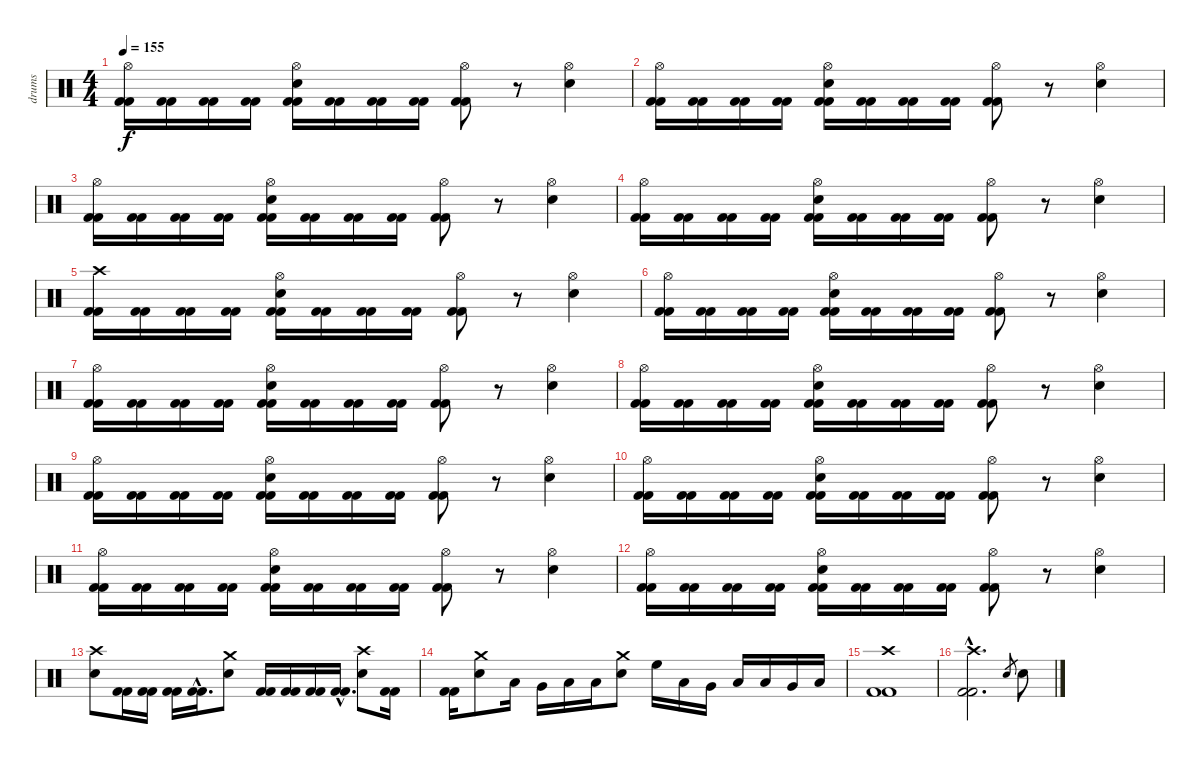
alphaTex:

\track ("drums" "drums") {instrument percussion}
\staff {score}
\articulation defaults
\ts (4 4)
\tempo 155
\clef neutral
\ks c
("Hi-Hat (open)" "Kick (hit) 2" "Kick (hit) 2").16{dy f} ("Kick (hit) 2" "Kick (hit) 2").16 ("Kick (hit) 2" "Kick (hit) 2").16 ("Kick (hit) 2" "Kick (hit) 2").16 ("Hi-Hat (open)" "Electric Snare (hit)" "Kick (hit) 2" "Kick (hit) 2").16 ("Kick (hit) 2" "Kick (hit) 2").16 ("Kick (hit) 2" "Kick (hit) 2").16 ("Kick (hit) 2" "Kick (hit) 2").16 ("Hi-Hat (open)" "Kick (hit) 2" "Kick (hit) 2").8 r.8 ("Hi-Hat (open)" "Electric Snare (hit)").4 |
("Hi-Hat (open)" "Kick (hit) 2" "Kick (hit) 2").16 ("Kick (hit) 2" "Kick (hit) 2").16 ("Kick (hit) 2" "Kick (hit) 2").16 ("Kick (hit) 2" "Kick (hit) 2").16 ("Hi-Hat (open)" "Electric Snare (hit)" "Kick (hit) 2" "Kick (hit) 2").16 ("Kick (hit) 2" "Kick (hit) 2").16 ("Kick (hit) 2" "Kick (hit) 2").16 ("Kick (hit) 2" "Kick (hit) 2").16 ("Hi-Hat (open)" "Kick (hit) 2" "Kick (hit) 2").8 r.8 ("Hi-Hat (open)" "Electric Snare (hit)").4 |
("Hi-Hat (open)" "Kick (hit) 2" "Kick (hit) 2").16 ("Kick (hit) 2" "Kick (hit) 2").16 ("Kick (hit) 2" "Kick (hit) 2").16 ("Kick (hit) 2" "Kick (hit) 2").16 ("Hi-Hat (open)" "Electric Snare (hit)" "Kick (hit) 2" "Kick (hit) 2").16 ("Kick (hit) 2" "Kick (hit) 2").16 ("Kick (hit) 2" "Kick (hit) 2").16 ("Kick (hit) 2" "Kick (hit) 2").16 ("Hi-Hat (open)" "Kick (hit) 2" "Kick (hit) 2").8 r.8 ("Hi-Hat (open)" "Electric Snare (hit)").4 |
("Hi-Hat (open)" "Kick (hit) 2" "Kick (hit) 2").16 ("Kick (hit) 2" "Kick (hit) 2").16 ("Kick (hit) 2" "Kick (hit) 2").16 ("Kick (hit) 2" "Kick (hit) 2").16 ("Hi-Hat (open)" "Electric Snare (hit)" "Kick (hit) 2" "Kick (hit) 2").16 ("Kick (hit) 2" "Kick (hit) 2").16 ("Kick (hit) 2" "Kick (hit) 2").16 ("Kick (hit) 2" "Kick (hit) 2").16 ("Hi-Hat (open)" "Kick (hit) 2" "Kick (hit) 2").8 r.8 ("Hi-Hat (open)" "Electric Snare (hit)").4 |
("Crash high (hit)" "Kick (hit) 2" "Kick (hit) 2").16 ("Kick (hit) 2" "Kick (hit) 2").16 ("Kick (hit) 2" "Kick (hit) 2").16 ("Kick (hit) 2" "Kick (hit) 2").16 ("Hi-Hat (open)" "Electric Snare (hit)" "Kick (hit) 2" "Kick (hit) 2").16 ("Kick (hit) 2" "Kick (hit) 2").16 ("Kick (hit) 2" "Kick (hit) 2").16 ("Kick (hit) 2" "Kick (hit) 2").16 ("Hi-Hat (open)" "Kick (hit) 2" "Kick (hit) 2").8 r.8 ("Hi-Hat (open)" "Electric Snare (hit)").4 |
("Hi-Hat (open)" "Kick (hit) 2" "Kick (hit) 2").16 ("Kick (hit) 2" "Kick (hit) 2").16 ("Kick (hit) 2" "Kick (hit) 2").16 ("Kick (hit) 2" "Kick (hit) 2").16 ("Hi-Hat (open)" "Electric Snare (hit)" "Kick (hit) 2" "Kick (hit) 2").16 ("Kick (hit) 2" "Kick (hit) 2").16 ("Kick (hit) 2" "Kick (hit) 2").16 ("Kick (hit) 2" "Kick (hit) 2").16 ("Hi-Hat (open)" "Kick (hit) 2" "Kick (hit) 2").8 r.8 ("Hi-Hat (open)" "Electric Snare (hit)").4 |
("Hi-Hat (open)" "Kick (hit) 2" "Kick (hit) 2").16 ("Kick (hit) 2" "Kick (hit) 2").16 ("Kick (hit) 2" "Kick (hit) 2").16 ("Kick (hit) 2" "Kick (hit) 2").16 ("Hi-Hat (open)" "Electric Snare (hit)" "Kick (hit) 2" "Kick (hit) 2").16 ("Kick (hit) 2" "Kick (hit) 2").16 ("Kick (hit) 2" "Kick (hit) 2").16 ("Kick (hit) 2" "Kick (hit) 2").16 ("Hi-Hat (open)" "Kick (hit) 2" "Kick (hit) 2").8 r.8 ("Hi-Hat (open)" "Electric Snare (hit)").4 |
("Hi-Hat (open)" "Kick (hit) 2" "Kick (hit) 2").16 ("Kick (hit) 2" "Kick (hit) 2").16 ("Kick (hit) 2" "Kick (hit) 2").16 ("Kick (hit) 2" "Kick (hit) 2").16 ("Hi-Hat (open)" "Electric Snare (hit)" "Kick (hit) 2" "Kick (hit) 2").16 ("Kick (hit) 2" "Kick (hit) 2").16 ("Kick (hit) 2" "Kick (hit) 2").16 ("Kick (hit) 2" "Kick (hit) 2").16 ("Hi-Hat (open)" "Kick (hit) 2" "Kick (hit) 2").8 r.8 ("Hi-Hat (open)" "Electric Snare (hit)").4 |
("Hi-Hat (open)" "Kick (hit) 2" "Kick (hit) 2").16 ("Kick (hit) 2" "Kick (hit) 2").16 ("Kick (hit) 2" "Kick (hit) 2").16 ("Kick (hit) 2" "Kick (hit) 2").16 ("Hi-Hat (open)" "Electric Snare (hit)" "Kick (hit) 2" "Kick (hit) 2").16 ("Kick (hit) 2" "Kick (hit) 2").16 ("Kick (hit) 2" "Kick (hit) 2").16 ("Kick (hit) 2" "Kick (hit) 2").16 ("Hi-Hat (open)" "Kick (hit) 2" "Kick (hit) 2").8 r.8 ("Hi-Hat (open)" "Electric Snare (hit)").4 |
("Hi-Hat (open)" "Kick (hit) 2" "Kick (hit) 2").16 ("Kick (hit) 2" "Kick (hit) 2").16 ("Kick (hit) 2" "Kick (hit) 2").16 ("Kick (hit) 2" "Kick (hit) 2").16 ("Hi-Hat (open)" "Electric Snare (hit)" "Kick (hit) 2" "Kick (hit) 2").16 ("Kick (hit) 2" "Kick (hit) 2").16 ("Kick (hit) 2" "Kick (hit) 2").16 ("Kick (hit) 2" "Kick (hit) 2").16 ("Hi-Hat (open)" "Kick (hit) 2" "Kick (hit) 2").8 r.8 ("Hi-Hat (open)" "Electric Snare (hit)").4 |
("Hi-Hat (open)" "Kick (hit) 2" "Kick (hit) 2").16 ("Kick (hit) 2" "Kick (hit) 2").16 ("Kick (hit) 2" "Kick (hit) 2").16 ("Kick (hit) 2" "Kick (hit) 2").16 ("Hi-Hat (open)" "Electric Snare (hit)" "Kick (hit) 2" "Kick (hit) 2").16 ("Kick (hit) 2" "Kick (hit) 2").16 ("Kick (hit) 2" "Kick (hit) 2").16 ("Kick (hit) 2" "Kick (hit) 2").16 ("Hi-Hat (open)" "Kick (hit) 2" "Kick (hit) 2").8 r.8 ("Hi-Hat (open)" "Electric Snare (hit)").4 |
("Hi-Hat (open)" "Kick (hit) 2" "Kick (hit) 2").16 ("Kick (hit) 2" "Kick (hit) 2").16 ("Kick (hit) 2" "Kick (hit) 2").16 ("Kick (hit) 2" "Kick (hit) 2").16 ("Hi-Hat (open)" "Electric Snare (hit)" "Kick (hit) 2" "Kick (hit) 2").16 ("Kick (hit) 2" "Kick (hit) 2").16 ("Kick (hit) 2" "Kick (hit) 2").16 ("Kick (hit) 2" "Kick (hit) 2").16 ("Hi-Hat (open)" "Kick (hit) 2" "Kick (hit) 2").8 r.8 ("Hi-Hat (open)" "Electric Snare (hit)").4 |
("Crash high (hit)" "Electric Snare (hit)").8 ("Kick (hit) 2" "Kick (hit) 2").16 ("Kick (hit) 2" "Kick (hit) 2").16 ("Kick (hit) 2" "Kick (hit) 2").16 ("Kick (hit) 2"{hac} "Kick (hit) 2"{hac}).16{d} ("Crash medium (hit)" "Electric Snare (hit)").8 ("Kick (hit) 2" "Kick (hit) 2").16 ("Kick (hit) 2" "Kick (hit) 2").16 ("Kick (hit) 2" "Kick (hit) 2").16 ("Kick (hit) 2"{hac} "Kick (hit) 2"{hac}).16{d} ("Crash high (hit)" "Electric Snare (hit)").8 ("Kick (hit) 2" "Kick (hit) 2").16 |
("Kick (hit) 2" "Kick (hit) 2").16 ("Crash medium (hit)" "Electric Snare (hit)").8 "Low Tom (hit)".16 "Very Low Tom (hit)".16 "Low Floor Tom (hit)".16 "Low Floor Tom (hit)".16 ("Crash medium (hit)" "Electric Snare (hit)").8 "High Floor Tom (hit)".16 "Low Tom (hit)".16 "Very Low Tom (hit)".16 "Low Floor Tom (hit)".16 "Low Tom (hit)".16 "Very Low Tom (hit)".16 "Low Floor Tom (hit)".16 |
("Crash high (hit)" "Kick (hit) 2" "Kick (hit) 2").1 |
("Crash high (hit)"{hac} "Kick (hit) 2"{hac} "Kick (hit) 2"{hac}).2{d} "Electric Snare (hit)".8{gr} "Electric Snare (hit)".8
